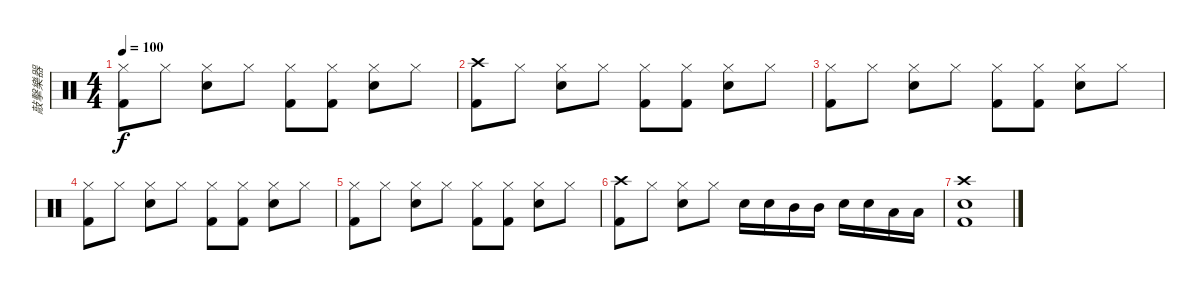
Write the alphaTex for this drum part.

\track ("敲擊樂器" "敲擊樂器") {instrument percussion}
\staff {score}
\articulation defaults
\ts (4 4)
\tempo 100
\clef neutral
\ks c
("Hi-Hat (closed)" "Kick (hit) 2").8{dy f} "Hi-Hat (closed)".8 ("Hi-Hat (closed)" "Snare (hit) 2").8 "Hi-Hat (closed)".8 ("Hi-Hat (closed)" "Kick (hit) 2").8 ("Hi-Hat (closed)" "Kick (hit) 2").8 ("Hi-Hat (closed)" "Snare (hit) 2").8 "Hi-Hat (closed)".8 |
("Crash high (hit)" "Kick (hit) 2").8 "Hi-Hat (closed)".8 ("Hi-Hat (closed)" "Snare (hit) 2").8 "Hi-Hat (closed)".8 ("Hi-Hat (closed)" "Kick (hit) 2").8 ("Hi-Hat (closed)" "Kick (hit) 2").8 ("Hi-Hat (closed)" "Snare (hit) 2").8 "Hi-Hat (closed)".8 |
("Hi-Hat (closed)" "Kick (hit) 2").8 "Hi-Hat (closed)".8 ("Hi-Hat (closed)" "Snare (hit) 2").8 "Hi-Hat (closed)".8 ("Hi-Hat (closed)" "Kick (hit) 2").8 ("Hi-Hat (closed)" "Kick (hit) 2").8 ("Hi-Hat (closed)" "Snare (hit) 2").8 "Hi-Hat (closed)".8 |
("Hi-Hat (closed)" "Kick (hit) 2").8 "Hi-Hat (closed)".8 ("Hi-Hat (closed)" "Snare (hit) 2").8 "Hi-Hat (closed)".8 ("Hi-Hat (closed)" "Kick (hit) 2").8 ("Hi-Hat (closed)" "Kick (hit) 2").8 ("Hi-Hat (closed)" "Snare (hit) 2").8 "Hi-Hat (closed)".8 |
("Hi-Hat (closed)" "Kick (hit) 2").8 "Hi-Hat (closed)".8 ("Hi-Hat (closed)" "Snare (hit) 2").8 "Hi-Hat (closed)".8 ("Hi-Hat (closed)" "Kick (hit) 2").8 ("Hi-Hat (closed)" "Kick (hit) 2").8 ("Hi-Hat (closed)" "Snare (hit) 2").8 "Hi-Hat (closed)".8 |
("Crash high (hit)" "Kick (hit) 2").8 "Hi-Hat (closed)".8 ("Hi-Hat (closed)" "Snare (hit) 2").8 "Hi-Hat (closed)".8 "Snare (hit) 2".16 "Snare (hit) 2".16 "Mid Tom (hit)".16 "Mid Tom (hit)".16 "Snare (hit) 2".16 "Snare (hit) 2".16 "Low Tom (hit)".16 "Low Tom (hit)".16 |
("Crash high (hit)" "Snare (hit) 2" "Kick (hit) 2").1
